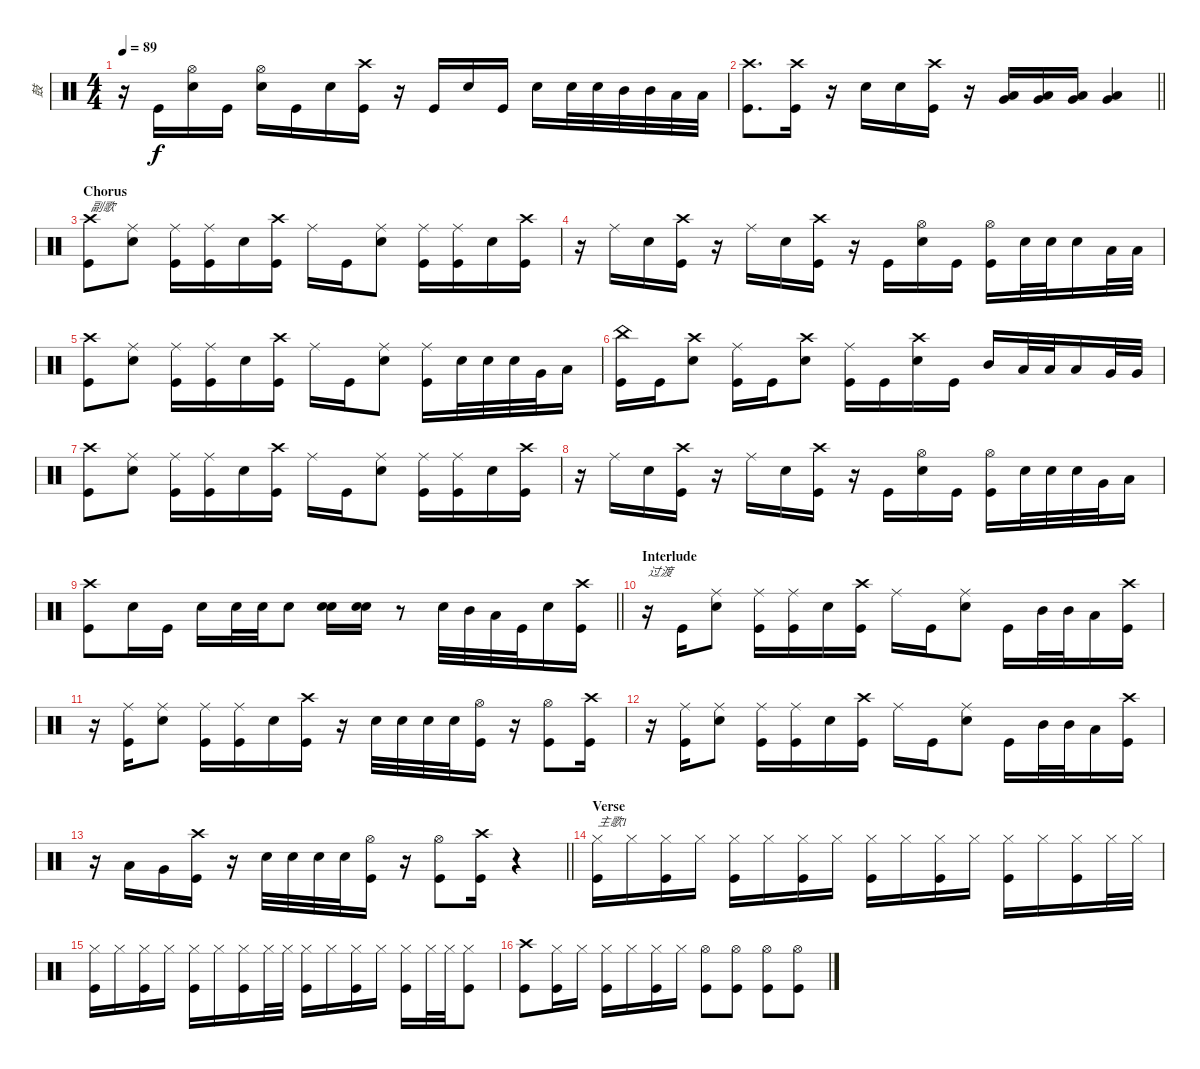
\track ("鼓" "鼓") {instrument percussion}
\staff {score}
\articulation defaults
\ts (4 4)
\tempo 89
\clef neutral
\ks c
r.16{dy f} "Kick (hit)".16 ("Snare (hit) 2" "Hi-Hat (open)").16 "Kick (hit)".16 ("Snare (hit) 2" "Hi-Hat (open)").16 "Kick (hit)".16 "Snare (hit) 2".16 ("Kick (hit)" "Crash high (hit)").16 r.16 "Kick (hit)".16 "Snare (hit) 2".16 "Kick (hit)".16 "Snare (hit) 2".16 "Snare (hit) 2".32 "Snare (hit) 2".32 "Mid Tom (hit)".32 "Mid Tom (hit)".32 "Low Tom (hit)".32 "Low Tom (hit)".32 |
\barLineRight lightlight
("Crash high (hit)" "Kick (hit)").8{d} ("Kick (hit)" "Crash high (hit)").16 r.16 "Snare (hit) 2".16 "Snare (hit) 2".16 ("Kick (hit)" "Crash high (hit)").16 r.16 ("Very Low Tom (hit)" "Low Floor Tom (hit)").16 ("Very Low Tom (hit)" "Low Floor Tom (hit)").16 ("Very Low Tom (hit)" "Low Floor Tom (hit)").16 ("Very Low Tom (hit)" "Low Floor Tom (hit)").4 |
\section ("" "Chorus")
("Crash high (hit)" "Kick (hit)").8{txt "副歌"} ("Snare (hit) 2" "Ride (middle)").8 ("Kick (hit)" "Ride (middle)").16 ("Kick (hit)" "Ride (middle)").16 "Snare (hit) 2".16 ("Kick (hit)" "Crash high (hit)").16 "Ride (middle)".16 "Kick (hit)".16 ("Snare (hit) 2" "Ride (middle)").8 ("Kick (hit)" "Ride (middle)").16 ("Kick (hit)" "Ride (middle)").16 "Snare (hit) 2".16 ("Kick (hit)" "Crash high (hit)").16 |
r.16 "Ride (middle)".16 "Snare (hit) 2".16 ("Kick (hit)" "Crash high (hit)").16 r.16 "Ride (middle)".16 "Snare (hit) 2".16 ("Kick (hit)" "Crash high (hit)").16 r.16 "Kick (hit)".16 ("Snare (hit) 2" "Hi-Hat (open)").16 "Kick (hit)".16 ("Kick (hit)" "Hi-Hat (open)").16 "Snare (hit) 2".32 "Snare (hit) 2".32 "Snare (hit) 2".16 "Low Tom (hit)".32 "Low Tom (hit)".32 |
("Crash high (hit)" "Kick (hit)").8 ("Snare (hit) 2" "Ride (middle)").8 ("Kick (hit)" "Ride (middle)").16 ("Kick (hit)" "Ride (middle)").16 "Snare (hit) 2".16 ("Kick (hit)" "Crash high (hit)").16 "Ride (middle)".16 "Kick (hit)".16 ("Snare (hit) 2" "Ride (middle)").8 ("Ride (middle)" "Kick (hit)").16 "Snare (hit) 2".32 "Snare (hit) 2".32 "Snare (hit) 2".32 "Very Low Tom (hit)".32 "Low Floor Tom (hit)".16 |
("China (hit)" "Kick (hit)").16 "Kick (hit)".16 ("Snare (hit) 2" "Crash high (hit)").8 ("Ride (middle)" "Kick (hit)").16 "Kick (hit)".16 ("Snare (hit) 2" "Crash high (hit)").8 ("Ride (middle)" "Kick (hit)").16 "Kick (hit)".16 ("Snare (hit) 2" "Crash high (hit)").16 "Kick (hit)".16 "Mid Tom (hit)".16 "Low Tom (hit)".32 "Low Tom (hit)".32 "Low Tom (hit)".16 "Very Low Tom (hit)".32 "Very Low Tom (hit)".32 |
("Crash high (hit)" "Kick (hit)").8 ("Snare (hit) 2" "Ride (middle)").8 ("Kick (hit)" "Ride (middle)").16 ("Kick (hit)" "Ride (middle)").16 "Snare (hit) 2".16 ("Kick (hit)" "Crash high (hit)").16 "Ride (middle)".16 "Kick (hit)".16 ("Snare (hit) 2" "Ride (middle)").8 ("Kick (hit)" "Ride (middle)").16 ("Kick (hit)" "Ride (middle)").16 "Snare (hit) 2".16 ("Kick (hit)" "Crash high (hit)").16 |
r.16 "Ride (middle)".16 "Snare (hit) 2".16 ("Kick (hit)" "Crash high (hit)").16 r.16 "Ride (middle)".16 "Snare (hit) 2".16 ("Kick (hit)" "Crash high (hit)").16 r.16 "Kick (hit)".16 ("Snare (hit) 2" "Hi-Hat (open)").16 "Kick (hit)".16 ("Kick (hit)" "Hi-Hat (open)").16 "Snare (hit) 2".32 "Snare (hit) 2".32 "Snare (hit) 2".32 "Very Low Tom (hit)".32 "Low Floor Tom (hit)".16 |
\barLineRight lightlight
("Crash high (hit)" "Kick (hit)").8 "Snare (hit) 2".16 "Kick (hit)".16 "Snare (hit) 2".16 "Snare (hit) 2".32 "Snare (hit) 2".32 "Snare (hit) 2".8 ("Snare (hit) 2" "Snare (hit) 2").16 ("Snare (hit) 2" "Snare (hit) 2").16 r.8 "Snare (hit) 2".32 "Mid Tom (hit)".32 "Low Tom (hit)".32 "Kick (hit)".32 "Snare (hit) 2".16 ("Kick (hit)" "Crash high (hit)").16 |
\section ("" "Interlude")
r.16{txt "过渡"} "Kick (hit)".16 ("Ride (middle)" "Snare (hit) 2").8 ("Kick (hit)" "Ride (middle)").16 ("Kick (hit)" "Ride (middle)").16 "Snare (hit) 2".16 ("Kick (hit)" "Crash high (hit)").16 "Ride (middle)".16 "Kick (hit)".16 ("Ride (middle)" "Snare (hit) 2").8 "Kick (hit)".16 "Mid Tom (hit)".32 "Mid Tom (hit)".32 "Low Tom (hit)".16 ("Kick (hit)" "Crash high (hit)").16 |
r.16 ("Kick (hit)" "Ride (middle)").16 ("Ride (middle)" "Snare (hit) 2").8 ("Kick (hit)" "Ride (middle)").16 ("Kick (hit)" "Ride (middle)").16 "Snare (hit) 2".16 ("Kick (hit)" "Crash high (hit)").16 r.16 "Snare (hit) 2".32 "Snare (hit) 2".32 "Snare (hit) 2".32 "Snare (hit) 2".32 ("Hi-Hat (open)" "Kick (hit)").16 r.16 ("Hi-Hat (open)" "Kick (hit)").8 ("Kick (hit)" "Crash high (hit)").16 |
r.16 ("Kick (hit)" "Ride (middle)").16 ("Ride (middle)" "Snare (hit) 2").8 ("Kick (hit)" "Ride (middle)").16 ("Kick (hit)" "Ride (middle)").16 "Snare (hit) 2".16 ("Kick (hit)" "Crash high (hit)").16 "Ride (middle)".16 "Kick (hit)".16 ("Ride (middle)" "Snare (hit) 2").8 "Kick (hit)".16 "Mid Tom (hit)".32 "Mid Tom (hit)".32 "Low Tom (hit)".16 ("Kick (hit)" "Crash high (hit)").16 |
\barLineRight lightlight
r.16 "Low Tom (hit)".16 "Very Low Tom (hit)".16 ("Kick (hit)" "Crash high (hit)").16 r.16 "Snare (hit) 2".32 "Snare (hit) 2".32 "Snare (hit) 2".32 "Snare (hit) 2".32 ("Kick (hit)" "Hi-Hat (open)").16 r.16 ("Hi-Hat (open)" "Kick (hit)").8 ("Kick (hit)" "Crash high (hit)").16 r.4 |
\section ("" "Verse")
("Kick (hit)" "Hi-Hat (closed)").16{txt "主歌1"} "Hi-Hat (closed)".16 ("Hi-Hat (closed)" "Kick (hit)").16 "Hi-Hat (closed)".16 ("Hi-Hat (closed)" "Kick (hit)").16 "Hi-Hat (closed)".16 ("Hi-Hat (closed)" "Kick (hit)").16 "Hi-Hat (closed)".16 ("Hi-Hat (closed)" "Kick (hit)").16 "Hi-Hat (closed)".16 ("Hi-Hat (closed)" "Kick (hit)").16 "Hi-Hat (closed)".16 ("Hi-Hat (closed)" "Kick (hit)").16 "Hi-Hat (closed)".16 ("Hi-Hat (closed)" "Kick (hit)").16 "Hi-Hat (closed)".32 "Hi-Hat (closed)".32 |
("Hi-Hat (closed)" "Kick (hit)").16 "Hi-Hat (closed)".16 ("Hi-Hat (closed)" "Kick (hit)").16 "Hi-Hat (closed)".16 ("Hi-Hat (closed)" "Kick (hit)").16 "Hi-Hat (closed)".16 ("Hi-Hat (closed)" "Kick (hit)").16 "Hi-Hat (closed)".32 "Hi-Hat (closed)".32 ("Hi-Hat (closed)" "Kick (hit)").16 "Hi-Hat (closed)".16 ("Hi-Hat (closed)" "Kick (hit)").16 "Hi-Hat (closed)".16 ("Hi-Hat (closed)" "Kick (hit)").16 "Hi-Hat (closed)".32 "Hi-Hat (closed)".32 ("Kick (hit)" "Hi-Hat (closed)").8 |
("Crash high (hit)" "Kick (hit)").8 ("Kick (hit)" "Hi-Hat (closed)").16 "Hi-Hat (closed)".16 ("Kick (hit)" "Hi-Hat (closed)").16 "Hi-Hat (closed)".16 ("Hi-Hat (closed)" "Kick (hit)").16 "Hi-Hat (closed)".16 ("Kick (hit)" "Hi-Hat (open)").8 ("Kick (hit)" "Hi-Hat (open)").8 ("Kick (hit)" "Hi-Hat (open)").8 ("Kick (hit)" "Hi-Hat (open)").8
